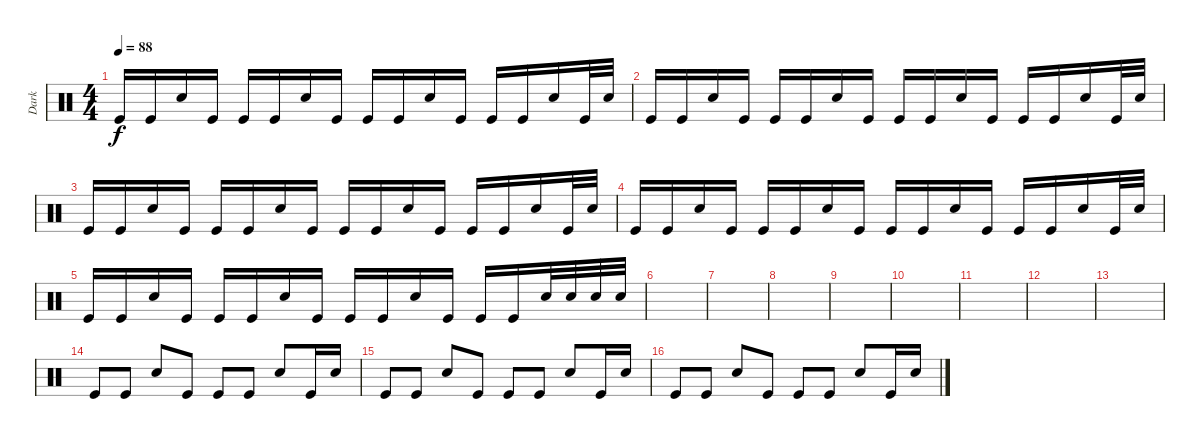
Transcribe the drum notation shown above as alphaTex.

\track ("Dark " "Dark ") {instrument percussion}
\staff {score}
\articulation defaults
\ts (4 4)
\tempo 88
\clef neutral
\ks c "Kick (hit)".16{dy f} "Kick (hit)".16 "Snare (hit) 2".16 "Kick (hit)".16 "Kick (hit)".16 "Kick (hit)".16 "Snare (hit) 2".16 "Kick (hit)".16 "Kick (hit)".16 "Kick (hit)".16 "Snare (hit) 2".16 "Kick (hit)".16 "Kick (hit)".16 "Kick (hit)".16 "Snare (hit) 2".16 "Kick (hit)".32 "Snare (hit) 2".32
|
"Kick (hit)".16 "Kick (hit)".16 "Snare (hit) 2".16 "Kick (hit)".16 "Kick (hit)".16 "Kick (hit)".16 "Snare (hit) 2".16 "Kick (hit)".16 "Kick (hit)".16 "Kick (hit)".16 "Snare (hit) 2".16 "Kick (hit)".16 "Kick (hit)".16 "Kick (hit)".16 "Snare (hit) 2".16 "Kick (hit)".32 "Snare (hit) 2".32 |
"Kick (hit)".16 "Kick (hit)".16 "Snare (hit) 2".16 "Kick (hit)".16 "Kick (hit)".16 "Kick (hit)".16 "Snare (hit) 2".16 "Kick (hit)".16 "Kick (hit)".16 "Kick (hit)".16 "Snare (hit) 2".16 "Kick (hit)".16 "Kick (hit)".16 "Kick (hit)".16 "Snare (hit) 2".16 "Kick (hit)".32 "Snare (hit) 2".32 |
"Kick (hit)".16 "Kick (hit)".16 "Snare (hit) 2".16 "Kick (hit)".16 "Kick (hit)".16 "Kick (hit)".16 "Snare (hit) 2".16 "Kick (hit)".16 "Kick (hit)".16 "Kick (hit)".16 "Snare (hit) 2".16 "Kick (hit)".16 "Kick (hit)".16 "Kick (hit)".16 "Snare (hit) 2".16 "Kick (hit)".32 "Snare (hit) 2".32 |
"Kick (hit)".16 "Kick (hit)".16 "Snare (hit) 2".16 "Kick (hit)".16 "Kick (hit)".16 "Kick (hit)".16 "Snare (hit) 2".16 "Kick (hit)".16 "Kick (hit)".16 "Kick (hit)".16 "Snare (hit) 2".16 "Kick (hit)".16 "Kick (hit)".16 "Kick (hit)".16 "Snare (hit) 2".32 "Snare (hit) 2".32 "Snare (hit) 2".32 "Snare (hit) 2".32 |
|
|
|
|
|
|
|
|
"Kick (hit)".8 "Kick (hit)".8 "Snare (hit) 2".8 "Kick (hit)".8 "Kick (hit)".8 "Kick (hit)".8 "Snare (hit) 2".8 "Kick (hit)".16 "Snare (hit) 2".16 |
"Kick (hit)".8 "Kick (hit)".8 "Snare (hit) 2".8 "Kick (hit)".8 "Kick (hit)".8 "Kick (hit)".8 "Snare (hit) 2".8 "Kick (hit)".16 "Snare (hit) 2".16 |
"Kick (hit)".8 "Kick (hit)".8 "Snare (hit) 2".8 "Kick (hit)".8 "Kick (hit)".8 "Kick (hit)".8 "Snare (hit) 2".8 "Kick (hit)".16 "Snare (hit) 2".16
